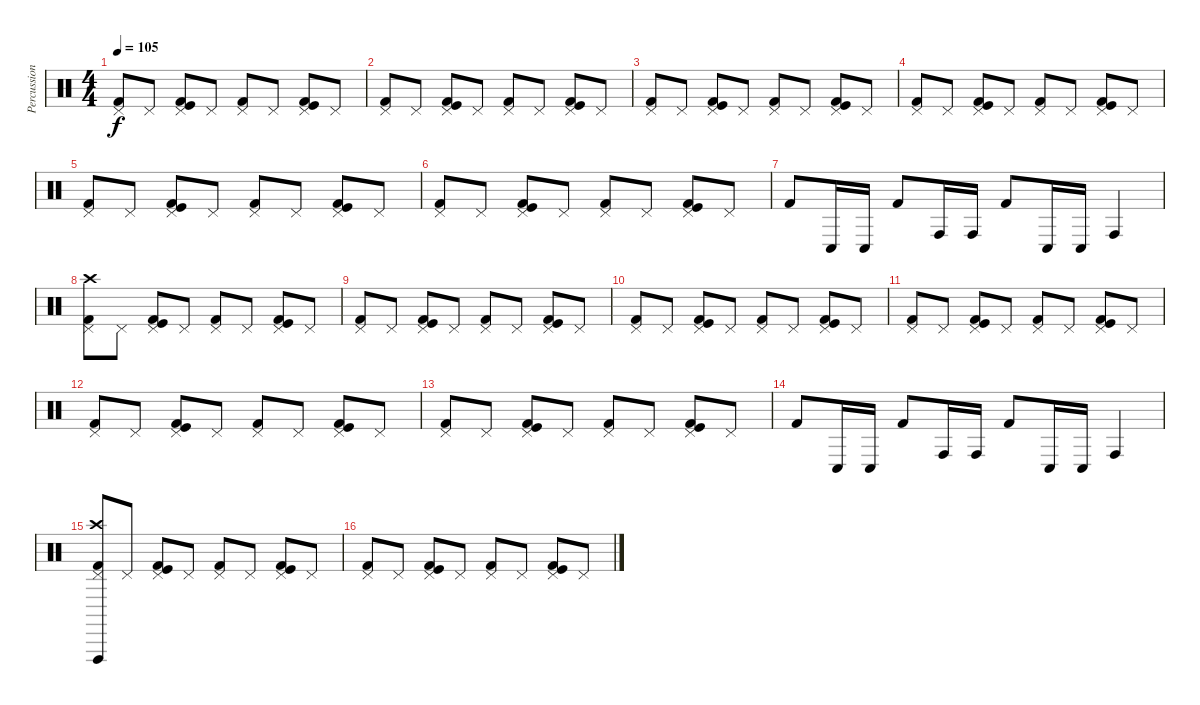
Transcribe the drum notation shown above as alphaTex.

\track ("Percussion" "Percussion") {instrument percussion}
\staff {score}
\articulation defaults
\ts (4 4)
\tempo 105
\clef neutral
\ks aminor
("Kick (hit) 2" "Pedal Hi-Hat (hit)").8{dy f} "Pedal Hi-Hat (hit)".8 ("Kick (hit)" "Pedal Hi-Hat (hit)" "Kick (hit) 2").8 "Pedal Hi-Hat (hit)".8 ("Kick (hit) 2" "Pedal Hi-Hat (hit)").8 "Pedal Hi-Hat (hit)".8 ("Kick (hit)" "Pedal Hi-Hat (hit)" "Kick (hit) 2").8 "Pedal Hi-Hat (hit)".8 |
("Kick (hit) 2" "Pedal Hi-Hat (hit)").8 "Pedal Hi-Hat (hit)".8 ("Kick (hit)" "Pedal Hi-Hat (hit)" "Kick (hit) 2").8 "Pedal Hi-Hat (hit)".8 ("Kick (hit) 2" "Pedal Hi-Hat (hit)").8 "Pedal Hi-Hat (hit)".8 ("Kick (hit)" "Pedal Hi-Hat (hit)" "Kick (hit) 2").8 "Pedal Hi-Hat (hit)".8 |
("Kick (hit) 2" "Pedal Hi-Hat (hit)").8 "Pedal Hi-Hat (hit)".8 ("Kick (hit)" "Pedal Hi-Hat (hit)" "Kick (hit) 2").8 "Pedal Hi-Hat (hit)".8 ("Kick (hit) 2" "Pedal Hi-Hat (hit)").8 "Pedal Hi-Hat (hit)".8 ("Kick (hit)" "Pedal Hi-Hat (hit)" "Kick (hit) 2").8 "Pedal Hi-Hat (hit)".8 |
("Kick (hit) 2" "Pedal Hi-Hat (hit)").8 "Pedal Hi-Hat (hit)".8 ("Kick (hit)" "Pedal Hi-Hat (hit)" "Kick (hit) 2").8 "Pedal Hi-Hat (hit)".8 ("Kick (hit) 2" "Pedal Hi-Hat (hit)").8 "Pedal Hi-Hat (hit)".8 ("Kick (hit)" "Pedal Hi-Hat (hit)" "Kick (hit) 2").8 "Pedal Hi-Hat (hit)".8 |
("Kick (hit) 2" "Pedal Hi-Hat (hit)").8 "Pedal Hi-Hat (hit)".8 ("Kick (hit)" "Pedal Hi-Hat (hit)" "Kick (hit) 2").8 "Pedal Hi-Hat (hit)".8 ("Kick (hit) 2" "Pedal Hi-Hat (hit)").8 "Pedal Hi-Hat (hit)".8 ("Kick (hit)" "Pedal Hi-Hat (hit)" "Kick (hit) 2").8 "Pedal Hi-Hat (hit)".8 |
("Kick (hit) 2" "Pedal Hi-Hat (hit)").8 "Pedal Hi-Hat (hit)".8 ("Kick (hit)" "Pedal Hi-Hat (hit)" "Kick (hit) 2").8 "Pedal Hi-Hat (hit)".8 ("Kick (hit) 2" "Pedal Hi-Hat (hit)").8 "Pedal Hi-Hat (hit)".8 ("Kick (hit)" "Pedal Hi-Hat (hit)" "Kick (hit) 2").8 "Pedal Hi-Hat (hit)".8 |
"Kick (hit) 2".8 "Conga low (hit)".16 "Conga low (hit)".16 "Kick (hit) 2".8 "Conga high (hit)".16 "Conga high (hit)".16 "Kick (hit) 2".8 "Conga low (hit)".16 "Conga low (hit)".16 "Conga high (hit)".4 |
("Kick (hit) 2" "Pedal Hi-Hat (hit)" "Crash high (hit)").8 "Pedal Hi-Hat (hit)".8 ("Kick (hit)" "Pedal Hi-Hat (hit)" "Kick (hit) 2").8 "Pedal Hi-Hat (hit)".8 ("Kick (hit) 2" "Pedal Hi-Hat (hit)").8 "Pedal Hi-Hat (hit)".8 ("Kick (hit)" "Pedal Hi-Hat (hit)" "Kick (hit) 2").8 "Pedal Hi-Hat (hit)".8 |
("Kick (hit) 2" "Pedal Hi-Hat (hit)").8 "Pedal Hi-Hat (hit)".8 ("Kick (hit)" "Pedal Hi-Hat (hit)" "Kick (hit) 2").8 "Pedal Hi-Hat (hit)".8 ("Kick (hit) 2" "Pedal Hi-Hat (hit)").8 "Pedal Hi-Hat (hit)".8 ("Kick (hit)" "Pedal Hi-Hat (hit)" "Kick (hit) 2").8 "Pedal Hi-Hat (hit)".8 |
("Kick (hit) 2" "Pedal Hi-Hat (hit)").8 "Pedal Hi-Hat (hit)".8 ("Kick (hit)" "Pedal Hi-Hat (hit)" "Kick (hit) 2").8 "Pedal Hi-Hat (hit)".8 ("Kick (hit) 2" "Pedal Hi-Hat (hit)").8 "Pedal Hi-Hat (hit)".8 ("Kick (hit)" "Pedal Hi-Hat (hit)" "Kick (hit) 2").8 "Pedal Hi-Hat (hit)".8 |
("Kick (hit) 2" "Pedal Hi-Hat (hit)").8 "Pedal Hi-Hat (hit)".8 ("Kick (hit)" "Pedal Hi-Hat (hit)" "Kick (hit) 2").8 "Pedal Hi-Hat (hit)".8 ("Kick (hit) 2" "Pedal Hi-Hat (hit)").8 "Pedal Hi-Hat (hit)".8 ("Kick (hit)" "Pedal Hi-Hat (hit)" "Kick (hit) 2").8 "Pedal Hi-Hat (hit)".8 |
("Kick (hit) 2" "Pedal Hi-Hat (hit)").8 "Pedal Hi-Hat (hit)".8 ("Kick (hit)" "Pedal Hi-Hat (hit)" "Kick (hit) 2").8 "Pedal Hi-Hat (hit)".8 ("Kick (hit) 2" "Pedal Hi-Hat (hit)").8 "Pedal Hi-Hat (hit)".8 ("Kick (hit)" "Pedal Hi-Hat (hit)" "Kick (hit) 2").8 "Pedal Hi-Hat (hit)".8 |
("Kick (hit) 2" "Pedal Hi-Hat (hit)").8 "Pedal Hi-Hat (hit)".8 ("Kick (hit)" "Pedal Hi-Hat (hit)" "Kick (hit) 2").8 "Pedal Hi-Hat (hit)".8 ("Kick (hit) 2" "Pedal Hi-Hat (hit)").8 "Pedal Hi-Hat (hit)".8 ("Kick (hit)" "Pedal Hi-Hat (hit)" "Kick (hit) 2").8 "Pedal Hi-Hat (hit)".8 |
"Kick (hit) 2".8 "Conga low (hit)".16 "Conga low (hit)".16 "Kick (hit) 2".8 "Conga high (hit)".16 "Conga high (hit)".16 "Kick (hit) 2".8 "Conga low (hit)".16 "Conga low (hit)".16 "Conga high (hit)".4 |
("Kick (hit) 2" "Pedal Hi-Hat (hit)" "Vibraslap (hit)" "Crash high (hit)").8 "Pedal Hi-Hat (hit)".8 ("Kick (hit)" "Pedal Hi-Hat (hit)" "Kick (hit) 2").8 "Pedal Hi-Hat (hit)".8 ("Kick (hit) 2" "Pedal Hi-Hat (hit)").8 "Pedal Hi-Hat (hit)".8 ("Kick (hit)" "Pedal Hi-Hat (hit)" "Kick (hit) 2").8 "Pedal Hi-Hat (hit)".8 |
("Kick (hit) 2" "Pedal Hi-Hat (hit)").8 "Pedal Hi-Hat (hit)".8 ("Kick (hit)" "Pedal Hi-Hat (hit)" "Kick (hit) 2").8 "Pedal Hi-Hat (hit)".8 ("Kick (hit) 2" "Pedal Hi-Hat (hit)").8 "Pedal Hi-Hat (hit)".8 ("Kick (hit)" "Pedal Hi-Hat (hit)" "Kick (hit) 2").8 "Pedal Hi-Hat (hit)".8
